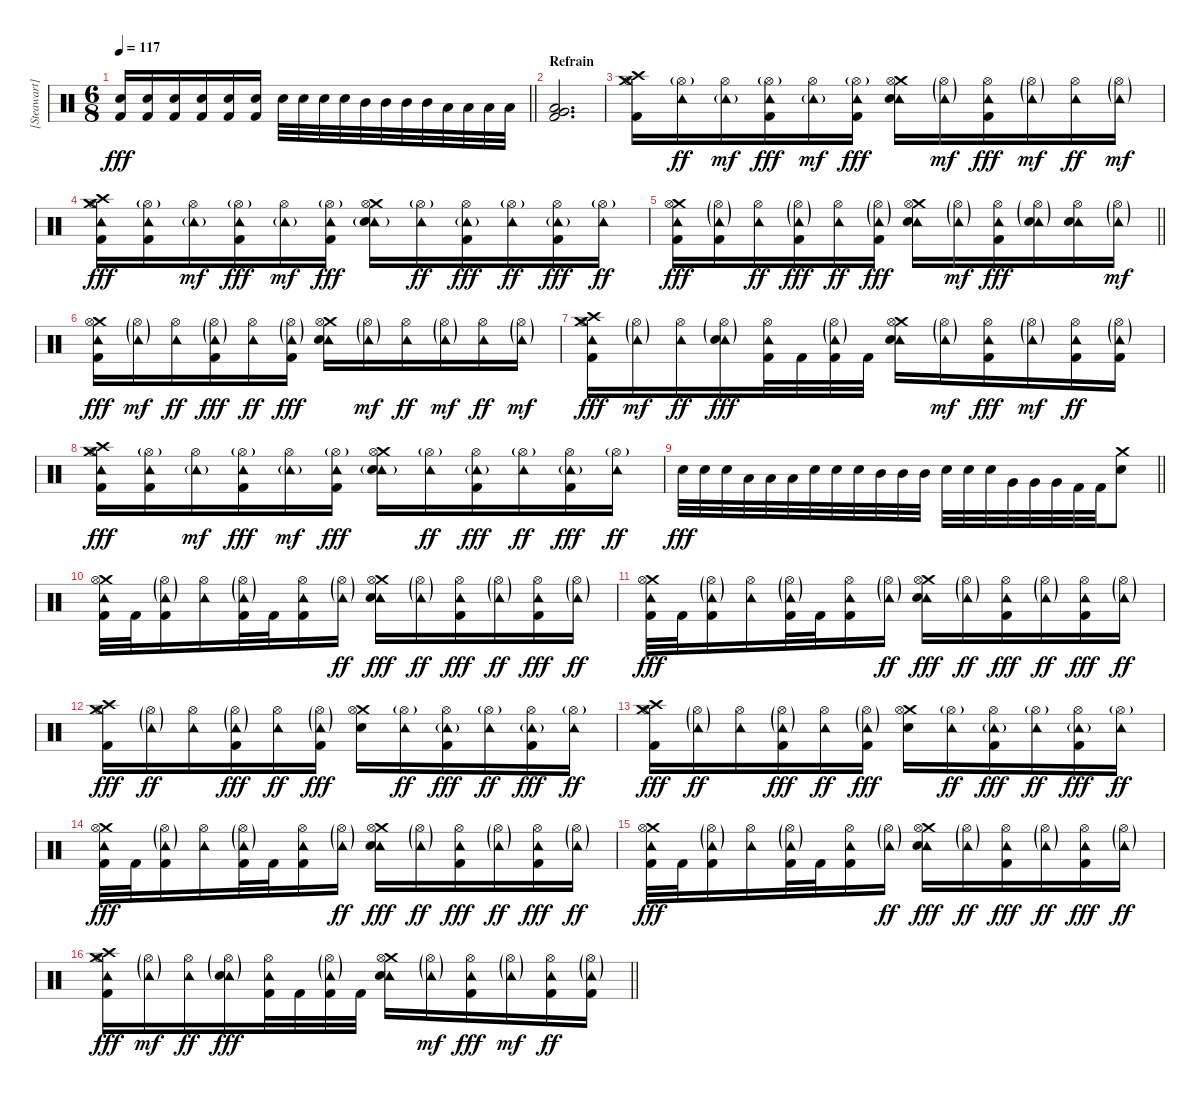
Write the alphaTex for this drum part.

\track ("[Steawart] Drums" "[Steawart]") {instrument percussion}
\staff {score}
\articulation defaults
\ts (6 8)
\tempo 117
\clef neutral
\barLineRight lightlight
\ks c
("Electric Snare (hit)" "Kick (hit) 2").16{dy fff} ("Electric Snare (hit)" "Kick (hit) 2").16 ("Electric Snare (hit)" "Kick (hit) 2").16 ("Electric Snare (hit)" "Kick (hit) 2").16 ("Electric Snare (hit)" "Kick (hit) 2").16 ("Electric Snare (hit)" "Kick (hit) 2").16 "Electric Snare (hit)".32 "Electric Snare (hit)".32 "Electric Snare (hit)".32 "Electric Snare (hit)".32 "Mid Tom (hit)".32 "Mid Tom (hit)".32 "Mid Tom (hit)".32 "Mid Tom (hit)".32 "Low Tom (hit)".32 "Low Tom (hit)".32 "Low Tom (hit)".32 "Low Tom (hit)".32 |
\section ("" "Refrain ")
("Low Tom (hit)" "Very Low Tom (hit)" "Kick (hit) 2").2{d} |
("Crash medium (hit)" "Hi-Hat (open)" "Crash high (hit)" "Kick (hit) 2").16 ("Hi-Hat (open)"{g} "Tambourine (hit)").16{dy ff} ("Hi-Hat (open)" "Tambourine (hit)"{g}).16{dy mf} ("Hi-Hat (open)"{g} "Tambourine (hit)" "Kick (hit) 2").16{dy fff} ("Hi-Hat (open)" "Tambourine (hit)"{g}).16{dy mf} ("Hi-Hat (open)"{g} "Tambourine (hit)" "Kick (hit) 2").16{dy fff} ("Crash medium (hit)" "Hi-Hat (open)" "Tambourine (hit)" "Electric Snare (hit)").16 ("Hi-Hat (open)"{g} "Tambourine (hit)"{g}).16{dy mf} ("Hi-Hat (open)" "Tambourine (hit)" "Kick (hit) 2").16{dy fff} ("Hi-Hat (open)"{g} "Tambourine (hit)"{g}).16{dy mf} ("Hi-Hat (open)" "Tambourine (hit)").16{dy ff} ("Hi-Hat (open)"{g} "Tambourine (hit)"{g}).16{dy mf} |
("Crash medium (hit)" "Hi-Hat (open)" "Crash high (hit)" "Tambourine (hit)" "Kick (hit) 2").16{dy fff} ("Hi-Hat (open)"{g} "Tambourine (hit)" "Kick (hit) 2").16 ("Hi-Hat (open)" "Tambourine (hit)"{g}).16{dy mf} ("Hi-Hat (open)"{g} "Tambourine (hit)" "Kick (hit) 2").16{dy fff} ("Hi-Hat (open)" "Tambourine (hit)"{g}).16{dy mf} ("Hi-Hat (open)"{g} "Tambourine (hit)" "Kick (hit) 2").16{dy fff} ("Crash medium (hit)" "Hi-Hat (open)" "Tambourine (hit)"{g} "Electric Snare (hit)").16 ("Hi-Hat (open)"{g} "Tambourine (hit)").16{dy ff} ("Hi-Hat (open)" "Tambourine (hit)"{g} "Kick (hit) 2").16{dy fff} ("Hi-Hat (open)"{g} "Tambourine (hit)").16{dy ff} ("Hi-Hat (open)" "Tambourine (hit)"{g} "Kick (hit) 2").16{dy fff} ("Hi-Hat (open)"{g} "Tambourine (hit)").16{dy ff} |
\barLineRight lightlight
("Crash medium (hit)" "Hi-Hat (open)" "Tambourine (hit)" "Kick (hit) 2").16{dy fff} ("Hi-Hat (open)"{g} "Tambourine (hit)"{g} "Kick (hit) 2").16 ("Hi-Hat (open)" "Tambourine (hit)").16{dy ff} ("Hi-Hat (open)"{g} "Tambourine (hit)"{g} "Kick (hit) 2").16{dy fff} ("Hi-Hat (open)" "Tambourine (hit)").16{dy ff} ("Hi-Hat (open)"{g} "Tambourine (hit)"{g} "Kick (hit) 2").16{dy fff} ("Crash medium (hit)" "Hi-Hat (open)" "Tambourine (hit)" "Electric Snare (hit)").16 ("Hi-Hat (open)"{g} "Tambourine (hit)"{g}).16{dy mf} ("Hi-Hat (open)" "Tambourine (hit)" "Kick (hit) 2").16{dy fff} ("Hi-Hat (open)"{g} "Tambourine (hit)"{g} "Electric Snare (hit)").16 ("Hi-Hat (open)" "Tambourine (hit)" "Electric Snare (hit)").16 ("Hi-Hat (open)"{g} "Tambourine (hit)"{g}).16{dy mf} |
("Crash medium (hit)" "Hi-Hat (open)" "Tambourine (hit)" "Kick (hit) 2").16{dy fff} ("Hi-Hat (open)"{g} "Tambourine (hit)"{g}).16{dy mf} ("Hi-Hat (open)" "Tambourine (hit)").16{dy ff} ("Hi-Hat (open)"{g} "Tambourine (hit)"{g} "Kick (hit) 2").16{dy fff} ("Hi-Hat (open)" "Tambourine (hit)").16{dy ff} ("Hi-Hat (open)"{g} "Tambourine (hit)"{g} "Kick (hit) 2").16{dy fff} ("Crash medium (hit)" "Hi-Hat (open)" "Tambourine (hit)" "Electric Snare (hit)").16 ("Hi-Hat (open)"{g} "Tambourine (hit)"{g}).16{dy mf} ("Hi-Hat (open)" "Tambourine (hit)").16{dy ff} ("Hi-Hat (open)"{g} "Tambourine (hit)"{g}).16{dy mf} ("Hi-Hat (open)" "Tambourine (hit)").16{dy ff} ("Hi-Hat (open)"{g} "Tambourine (hit)"{g}).16{dy mf} |
("Crash medium (hit)" "Hi-Hat (open)" "Crash high (hit)" "Tambourine (hit)" "Kick (hit) 2").16{dy fff} ("Hi-Hat (open)"{g} "Tambourine (hit)"{g}).16{dy mf} ("Hi-Hat (open)" "Tambourine (hit)").16{dy ff} ("Hi-Hat (open)"{g} "Tambourine (hit)"{g} "Electric Snare (hit)").16{dy fff} ("Hi-Hat (open)" "Tambourine (hit)" "Kick (hit) 2").32 "Kick (hit) 2".32 ("Hi-Hat (open)"{g} "Tambourine (hit)"{g} "Kick (hit) 2").32 "Kick (hit) 2".32 ("Crash medium (hit)" "Hi-Hat (open)" "Tambourine (hit)" "Electric Snare (hit)").16 ("Hi-Hat (open)"{g} "Tambourine (hit)"{g}).16{dy mf} ("Hi-Hat (open)" "Tambourine (hit)" "Kick (hit) 2").16{dy fff} ("Hi-Hat (open)"{g} "Tambourine (hit)"{g}).16{dy mf} ("Hi-Hat (open)" "Tambourine (hit)" "Kick (hit) 2").16{dy ff} ("Hi-Hat (open)"{g} "Tambourine (hit)"{g} "Kick (hit) 2").16 |
("Crash medium (hit)" "Hi-Hat (open)" "Crash high (hit)" "Tambourine (hit)" "Kick (hit) 2").16{dy fff} ("Hi-Hat (open)"{g} "Tambourine (hit)" "Kick (hit) 2").16 ("Hi-Hat (open)" "Tambourine (hit)"{g}).16{dy mf} ("Hi-Hat (open)"{g} "Tambourine (hit)" "Kick (hit) 2").16{dy fff} ("Hi-Hat (open)" "Tambourine (hit)"{g}).16{dy mf} ("Hi-Hat (open)"{g} "Tambourine (hit)" "Kick (hit) 2").16{dy fff} ("Crash medium (hit)" "Hi-Hat (open)" "Tambourine (hit)"{g} "Electric Snare (hit)").16 ("Hi-Hat (open)"{g} "Tambourine (hit)").16{dy ff} ("Hi-Hat (open)" "Tambourine (hit)"{g} "Kick (hit) 2").16{dy fff} ("Hi-Hat (open)"{g} "Tambourine (hit)").16{dy ff} ("Hi-Hat (open)" "Tambourine (hit)"{g} "Kick (hit) 2").16{dy fff} ("Hi-Hat (open)"{g} "Tambourine (hit)").16{dy ff} |
\barLineRight lightlight "Electric Snare (hit)".32{dy fff} "Electric Snare (hit)".32 "Electric Snare (hit)".32 "Low Tom (hit)".32 "Low Tom (hit)".32 "Low Tom (hit)".32 "Electric Snare (hit)".32 "Electric Snare (hit)".32 "Electric Snare (hit)".32 "Mid Tom (hit)".32 "Mid Tom (hit)".32 "Mid Tom (hit)".32 "Electric Snare (hit)".32 "Electric Snare (hit)".32 "Electric Snare (hit)".32 "Very Low Tom (hit)".32 "Very Low Tom (hit)".32 "Very Low Tom (hit)".32 "Kick (hit) 2".32 "Kick (hit) 2".32
("Crash medium (hit)" "Electric Snare (hit)").8 |
("Crash medium (hit)" "Hi-Hat (open)" "Tambourine (hit)" "Kick (hit) 2").32 "Kick (hit) 2".32 ("Hi-Hat (open)"{g} "Tambourine (hit)"{g} "Kick (hit) 2").16 ("Hi-Hat (open)" "Tambourine (hit)").16 ("Hi-Hat (open)"{g} "Tambourine (hit)"{g} "Kick (hit) 2").32 "Kick (hit) 2".32 ("Hi-Hat (open)" "Tambourine (hit)" "Kick (hit) 2").16 ("Hi-Hat (open)"{g} "Tambourine (hit)"{g}).16{dy ff} ("Crash medium (hit)" "Hi-Hat (open)" "Tambourine (hit)" "Electric Snare (hit)").16{dy fff} ("Hi-Hat (open)"{g} "Tambourine (hit)"{g}).16{dy ff} ("Hi-Hat (open)" "Tambourine (hit)" "Kick (hit) 2").16{dy fff} ("Hi-Hat (open)"{g} "Tambourine (hit)"{g}).16{dy ff} ("Hi-Hat (open)" "Tambourine (hit)" "Kick (hit) 2").16{dy fff} ("Hi-Hat (open)"{g} "Tambourine (hit)"{g}).16{dy ff} |
("Crash medium (hit)" "Hi-Hat (open)" "Tambourine (hit)" "Kick (hit) 2").32{dy fff} "Kick (hit) 2".32 ("Hi-Hat (open)"{g} "Tambourine (hit)"{g} "Kick (hit) 2").16 ("Hi-Hat (open)" "Tambourine (hit)").16 ("Hi-Hat (open)"{g} "Tambourine (hit)"{g} "Kick (hit) 2").32 "Kick (hit) 2".32 ("Hi-Hat (open)" "Tambourine (hit)" "Kick (hit) 2").16 ("Hi-Hat (open)"{g} "Tambourine (hit)"{g}).16{dy ff} ("Crash medium (hit)" "Hi-Hat (open)" "Tambourine (hit)" "Electric Snare (hit)").16{dy fff} ("Hi-Hat (open)"{g} "Tambourine (hit)"{g}).16{dy ff} ("Hi-Hat (open)" "Tambourine (hit)" "Kick (hit) 2").16{dy fff} ("Hi-Hat (open)"{g} "Tambourine (hit)"{g}).16{dy ff} ("Hi-Hat (open)" "Tambourine (hit)" "Kick (hit) 2").16{dy fff} ("Hi-Hat (open)"{g} "Tambourine (hit)"{g}).16{dy ff} |
("Crash medium (hit)" "Hi-Hat (open)" "Crash high (hit)" "Kick (hit) 2").16{dy fff} ("Hi-Hat (open)"{g} "Tambourine (hit)"{g}).16{dy ff} ("Hi-Hat (open)" "Tambourine (hit)").16 ("Hi-Hat (open)"{g} "Tambourine (hit)"{g} "Kick (hit) 2").16{dy fff} ("Hi-Hat (open)" "Tambourine (hit)").16{dy ff} ("Hi-Hat (open)"{g} "Tambourine (hit)"{g} "Kick (hit) 2").16{dy fff} ("Crash medium (hit)" "Hi-Hat (open)" "Electric Snare (hit)").16 ("Hi-Hat (open)"{g} "Tambourine (hit)").16{dy ff} ("Hi-Hat (open)" "Tambourine (hit)"{g} "Kick (hit) 2").16{dy fff} ("Hi-Hat (open)"{g} "Tambourine (hit)").16{dy ff} ("Hi-Hat (open)" "Tambourine (hit)"{g} "Kick (hit) 2").16{dy fff} ("Hi-Hat (open)"{g} "Tambourine (hit)").16{dy ff} |
("Crash medium (hit)" "Hi-Hat (open)" "Crash high (hit)" "Kick (hit) 2").16{dy fff} ("Hi-Hat (open)"{g} "Tambourine (hit)"{g}).16{dy ff} ("Hi-Hat (open)" "Tambourine (hit)").16 ("Hi-Hat (open)"{g} "Tambourine (hit)"{g} "Kick (hit) 2").16{dy fff} ("Hi-Hat (open)" "Tambourine (hit)").16{dy ff} ("Hi-Hat (open)"{g} "Tambourine (hit)"{g} "Kick (hit) 2").16{dy fff} ("Crash medium (hit)" "Hi-Hat (open)" "Electric Snare (hit)").16 ("Hi-Hat (open)"{g} "Tambourine (hit)").16{dy ff} ("Hi-Hat (open)" "Tambourine (hit)"{g} "Kick (hit) 2").16{dy fff} ("Hi-Hat (open)"{g} "Tambourine (hit)").16{dy ff} ("Hi-Hat (open)" "Tambourine (hit)"{g} "Kick (hit) 2").16{dy fff} ("Hi-Hat (open)"{g} "Tambourine (hit)").16{dy ff} |
("Crash medium (hit)" "Hi-Hat (open)" "Tambourine (hit)" "Kick (hit) 2").32{dy fff} "Kick (hit) 2".32 ("Hi-Hat (open)"{g} "Tambourine (hit)"{g} "Kick (hit) 2").16 ("Hi-Hat (open)" "Tambourine (hit)").16 ("Hi-Hat (open)"{g} "Tambourine (hit)"{g} "Kick (hit) 2").32 "Kick (hit) 2".32 ("Hi-Hat (open)" "Tambourine (hit)" "Kick (hit) 2").16 ("Hi-Hat (open)"{g} "Tambourine (hit)"{g}).16{dy ff} ("Crash medium (hit)" "Hi-Hat (open)" "Tambourine (hit)" "Electric Snare (hit)").16{dy fff} ("Hi-Hat (open)"{g} "Tambourine (hit)"{g}).16{dy ff} ("Hi-Hat (open)" "Tambourine (hit)" "Kick (hit) 2").16{dy fff} ("Hi-Hat (open)"{g} "Tambourine (hit)"{g}).16{dy ff} ("Hi-Hat (open)" "Tambourine (hit)" "Kick (hit) 2").16{dy fff} ("Hi-Hat (open)"{g} "Tambourine (hit)"{g}).16{dy ff} |
("Crash medium (hit)" "Hi-Hat (open)" "Tambourine (hit)" "Kick (hit) 2").32{dy fff} "Kick (hit) 2".32 ("Hi-Hat (open)"{g} "Tambourine (hit)"{g} "Kick (hit) 2").16 ("Hi-Hat (open)" "Tambourine (hit)").16 ("Hi-Hat (open)"{g} "Tambourine (hit)"{g} "Kick (hit) 2").32 "Kick (hit) 2".32 ("Hi-Hat (open)" "Tambourine (hit)" "Kick (hit) 2").16 ("Hi-Hat (open)"{g} "Tambourine (hit)"{g}).16{dy ff} ("Crash medium (hit)" "Hi-Hat (open)" "Tambourine (hit)" "Electric Snare (hit)").16{dy fff} ("Hi-Hat (open)"{g} "Tambourine (hit)"{g}).16{dy ff} ("Hi-Hat (open)" "Tambourine (hit)" "Kick (hit) 2").16{dy fff} ("Hi-Hat (open)"{g} "Tambourine (hit)"{g}).16{dy ff} ("Hi-Hat (open)" "Tambourine (hit)" "Kick (hit) 2").16{dy fff} ("Hi-Hat (open)"{g} "Tambourine (hit)"{g}).16{dy ff} |
\barLineRight lightlight
("Crash medium (hit)" "Hi-Hat (open)" "Crash high (hit)" "Tambourine (hit)" "Kick (hit) 2").16{dy fff} ("Hi-Hat (open)"{g} "Tambourine (hit)"{g}).16{dy mf} ("Hi-Hat (open)" "Tambourine (hit)").16{dy ff} ("Hi-Hat (open)"{g} "Tambourine (hit)"{g} "Electric Snare (hit)").16{dy fff} ("Hi-Hat (open)" "Tambourine (hit)" "Kick (hit) 2").32 "Kick (hit) 2".32 ("Hi-Hat (open)"{g} "Tambourine (hit)"{g} "Kick (hit) 2").32 "Kick (hit) 2".32 ("Crash medium (hit)" "Hi-Hat (open)" "Tambourine (hit)" "Electric Snare (hit)").16 ("Hi-Hat (open)"{g} "Tambourine (hit)"{g}).16{dy mf} ("Hi-Hat (open)" "Tambourine (hit)" "Kick (hit) 2").16{dy fff} ("Hi-Hat (open)"{g} "Tambourine (hit)"{g}).16{dy mf} ("Hi-Hat (open)" "Tambourine (hit)" "Kick (hit) 2").16{dy ff} ("Hi-Hat (open)"{g} "Tambourine (hit)"{g} "Kick (hit) 2").16
